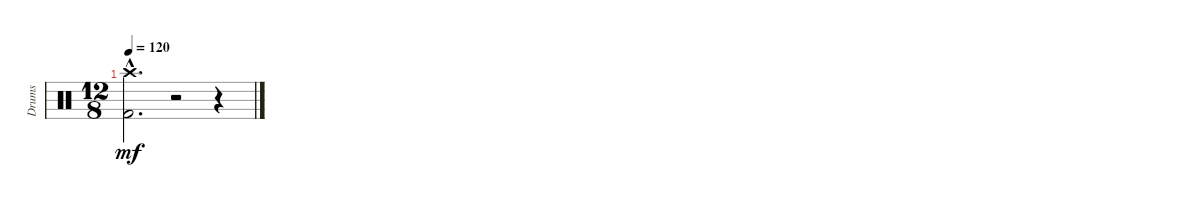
\track ("Drums" "Drums") {instrument percussion}
\staff {score}
\articulation defaults
\ts (12 8)
\tempo 120
\clef neutral
\ks c
("Crash high (hit)"{hac} "Kick (hit) 2"{hac}).2{d dy mf} r.2 r.4
